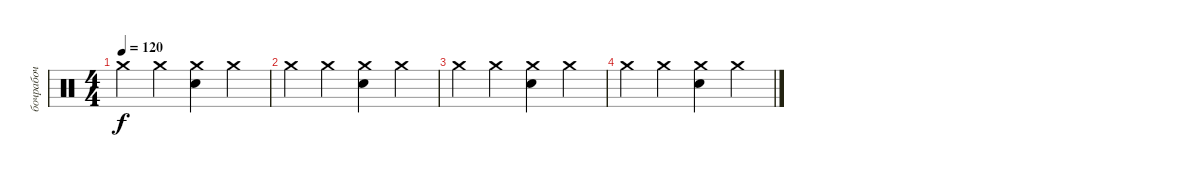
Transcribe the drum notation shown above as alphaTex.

\track ("бочрабоч" "бочрабоч") {instrument percussion}
\staff {score}
\articulation defaults
\ts (4 4)
\tempo 120
\clef neutral
\ks c "Crash medium (hit)".4{dy f} "Crash medium (hit)".4
("Crash medium (hit)" "Snare (hit) 2").4 "Crash medium (hit)".4 |
"Crash medium (hit)".4 "Crash medium (hit)".4 ("Crash medium (hit)" "Snare (hit) 2").4 "Crash medium (hit)".4 |
"Crash medium (hit)".4 "Crash medium (hit)".4 ("Crash medium (hit)" "Snare (hit) 2").4 "Crash medium (hit)".4 |
"Crash medium (hit)".4 "Crash medium (hit)".4 ("Crash medium (hit)" "Snare (hit) 2").4 "Crash medium (hit)".4
